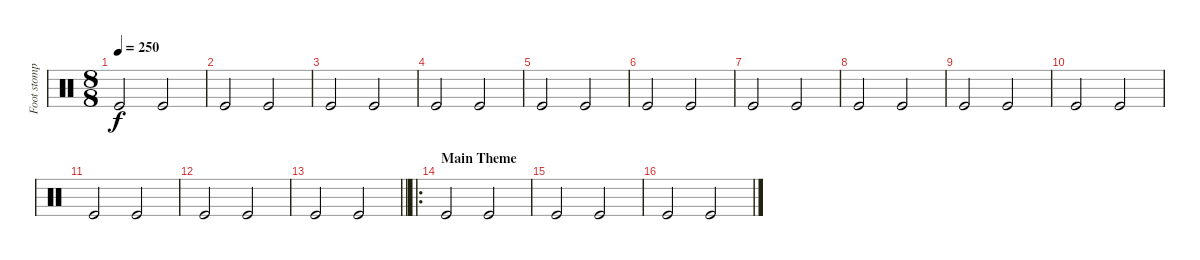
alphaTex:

\track ("Foot stomp!" "Foot stomp") {instrument percussion}
\staff {score}
\articulation defaults
\ts (8 8)
\tempo 250
\clef neutral
\ks c "Kick (hit)".2{dy f} "Kick (hit)".2
|
"Kick (hit)".2 "Kick (hit)".2 |
"Kick (hit)".2 "Kick (hit)".2 |
"Kick (hit)".2 "Kick (hit)".2 |
"Kick (hit)".2 "Kick (hit)".2 |
"Kick (hit)".2 "Kick (hit)".2 |
"Kick (hit)".2 "Kick (hit)".2 |
"Kick (hit)".2 "Kick (hit)".2 |
"Kick (hit)".2 "Kick (hit)".2 |
"Kick (hit)".2 "Kick (hit)".2 |
"Kick (hit)".2 "Kick (hit)".2 |
"Kick (hit)".2 "Kick (hit)".2 |
\barLineRight lightlight "Kick (hit)".2 "Kick (hit)".2
|
\ro
\section ("" "Main Theme")
"Kick (hit)".2 "Kick (hit)".2 |
"Kick (hit)".2 "Kick (hit)".2 |
"Kick (hit)".2 "Kick (hit)".2
